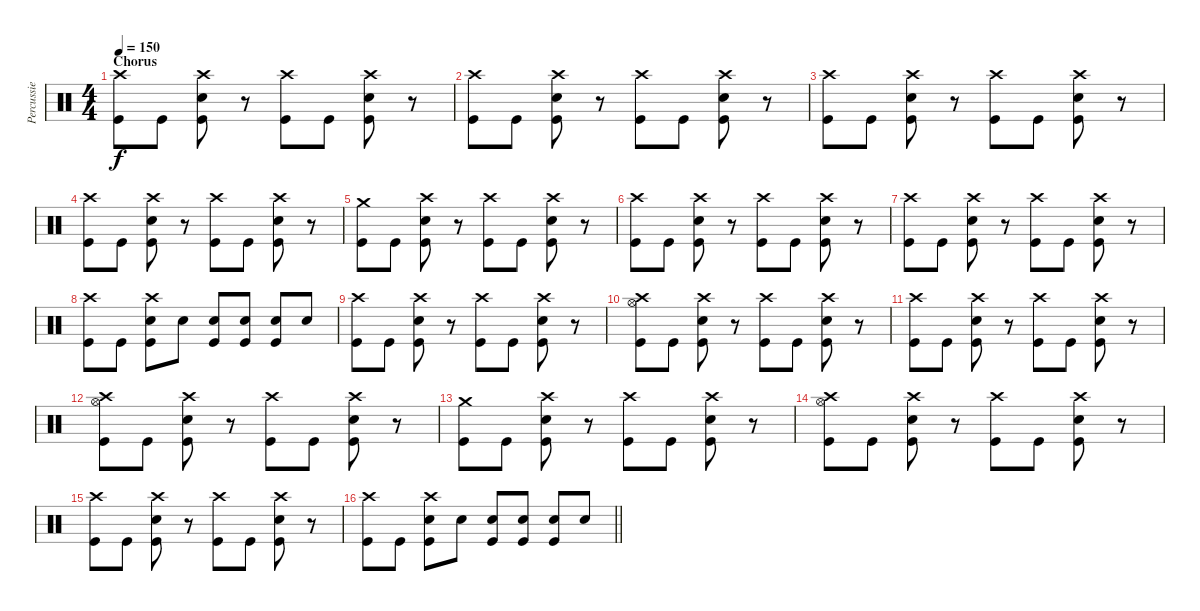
\track ("Percussie" "Percussie") {instrument percussion}
\staff {score}
\articulation defaults
\ts (4 4)
\section ("" "Chorus")
\tempo 150
\clef neutral
\ks c
("Crash high (hit)" "Kick (hit)").8{dy f} "Kick (hit)".8 ("Crash high (hit)" "Snare (hit) 2" "Kick (hit)").8 r.8 ("Crash high (hit)" "Kick (hit)").8 "Kick (hit)".8 ("Crash high (hit)" "Snare (hit) 2" "Kick (hit)").8 r.8 |
("Crash high (hit)" "Kick (hit)").8 "Kick (hit)".8 ("Crash high (hit)" "Snare (hit) 2" "Kick (hit)").8 r.8 ("Crash high (hit)" "Kick (hit)").8 "Kick (hit)".8 ("Crash high (hit)" "Snare (hit) 2" "Kick (hit)").8 r.8 |
("Crash high (hit)" "Kick (hit)").8 "Kick (hit)".8 ("Crash high (hit)" "Snare (hit) 2" "Kick (hit)").8 r.8 ("Crash high (hit)" "Kick (hit)").8 "Kick (hit)".8 ("Crash high (hit)" "Snare (hit) 2" "Kick (hit)").8 r.8 |
("Crash high (hit)" "Kick (hit)").8 "Kick (hit)".8 ("Crash high (hit)" "Snare (hit) 2" "Kick (hit)").8 r.8 ("Crash high (hit)" "Kick (hit)").8 "Kick (hit)".8 ("Crash high (hit)" "Snare (hit) 2" "Kick (hit)").8 r.8 |
("Crash medium (hit)" "Kick (hit)").8 "Kick (hit)".8 ("Crash high (hit)" "Snare (hit) 2" "Kick (hit)").8 r.8 ("Crash high (hit)" "Kick (hit)").8 "Kick (hit)".8 ("Crash high (hit)" "Snare (hit) 2" "Kick (hit)").8 r.8 |
("Crash high (hit)" "Kick (hit)").8 "Kick (hit)".8 ("Crash high (hit)" "Snare (hit) 2" "Kick (hit)").8 r.8 ("Crash high (hit)" "Kick (hit)").8 "Kick (hit)".8 ("Crash high (hit)" "Snare (hit) 2" "Kick (hit)").8 r.8 |
("Crash high (hit)" "Kick (hit)").8 "Kick (hit)".8 ("Crash high (hit)" "Snare (hit) 2" "Kick (hit)").8 r.8 ("Crash high (hit)" "Kick (hit)").8 "Kick (hit)".8 ("Crash high (hit)" "Snare (hit) 2" "Kick (hit)").8 r.8 |
("Crash high (hit)" "Kick (hit)").8 "Kick (hit)".8 ("Crash high (hit)" "Snare (hit) 2" "Kick (hit)").8 "Snare (hit) 2".8 ("Snare (hit) 2" "Kick (hit)").8 ("Snare (hit) 2" "Kick (hit)").8 ("Snare (hit) 2" "Kick (hit)").8 "Snare (hit) 2".8 |
("Crash high (hit)" "Kick (hit)").8 "Kick (hit)".8 ("Crash high (hit)" "Snare (hit) 2" "Kick (hit)").8 r.8 ("Crash high (hit)" "Kick (hit)").8 "Kick (hit)".8 ("Crash high (hit)" "Snare (hit) 2" "Kick (hit)").8 r.8 |
("Crash high (hit)" "Hi-Hat (open)" "Kick (hit)").8 "Kick (hit)".8 ("Crash high (hit)" "Snare (hit) 2" "Kick (hit)").8 r.8 ("Crash high (hit)" "Kick (hit)").8 "Kick (hit)".8 ("Crash high (hit)" "Snare (hit) 2" "Kick (hit)").8 r.8 |
("Crash high (hit)" "Kick (hit)").8 "Kick (hit)".8 ("Crash high (hit)" "Snare (hit) 2" "Kick (hit)").8 r.8 ("Crash high (hit)" "Kick (hit)").8 "Kick (hit)".8 ("Crash high (hit)" "Snare (hit) 2" "Kick (hit)").8 r.8 |
("Crash high (hit)" "Hi-Hat (open)" "Kick (hit)").8 "Kick (hit)".8 ("Crash high (hit)" "Snare (hit) 2" "Kick (hit)").8 r.8 ("Crash high (hit)" "Kick (hit)").8 "Kick (hit)".8 ("Crash high (hit)" "Snare (hit) 2" "Kick (hit)").8 r.8 |
("Crash medium (hit)" "Kick (hit)").8 "Kick (hit)".8 ("Crash high (hit)" "Snare (hit) 2" "Kick (hit)").8 r.8 ("Crash high (hit)" "Kick (hit)").8 "Kick (hit)".8 ("Crash high (hit)" "Snare (hit) 2" "Kick (hit)").8 r.8 |
("Crash high (hit)" "Hi-Hat (open)" "Kick (hit)").8 "Kick (hit)".8 ("Crash high (hit)" "Snare (hit) 2" "Kick (hit)").8 r.8 ("Crash high (hit)" "Kick (hit)").8 "Kick (hit)".8 ("Crash high (hit)" "Snare (hit) 2" "Kick (hit)").8 r.8 |
("Crash high (hit)" "Kick (hit)").8 "Kick (hit)".8 ("Crash high (hit)" "Snare (hit) 2" "Kick (hit)").8 r.8 ("Crash high (hit)" "Kick (hit)").8 "Kick (hit)".8 ("Crash high (hit)" "Snare (hit) 2" "Kick (hit)").8 r.8 |
\barLineRight lightlight
("Crash high (hit)" "Kick (hit)").8 "Kick (hit)".8 ("Crash high (hit)" "Snare (hit) 2" "Kick (hit)").8 "Snare (hit) 2".8 ("Snare (hit) 2" "Kick (hit)").8 ("Snare (hit) 2" "Kick (hit)").8 ("Snare (hit) 2" "Kick (hit)").8 "Snare (hit) 2".8
